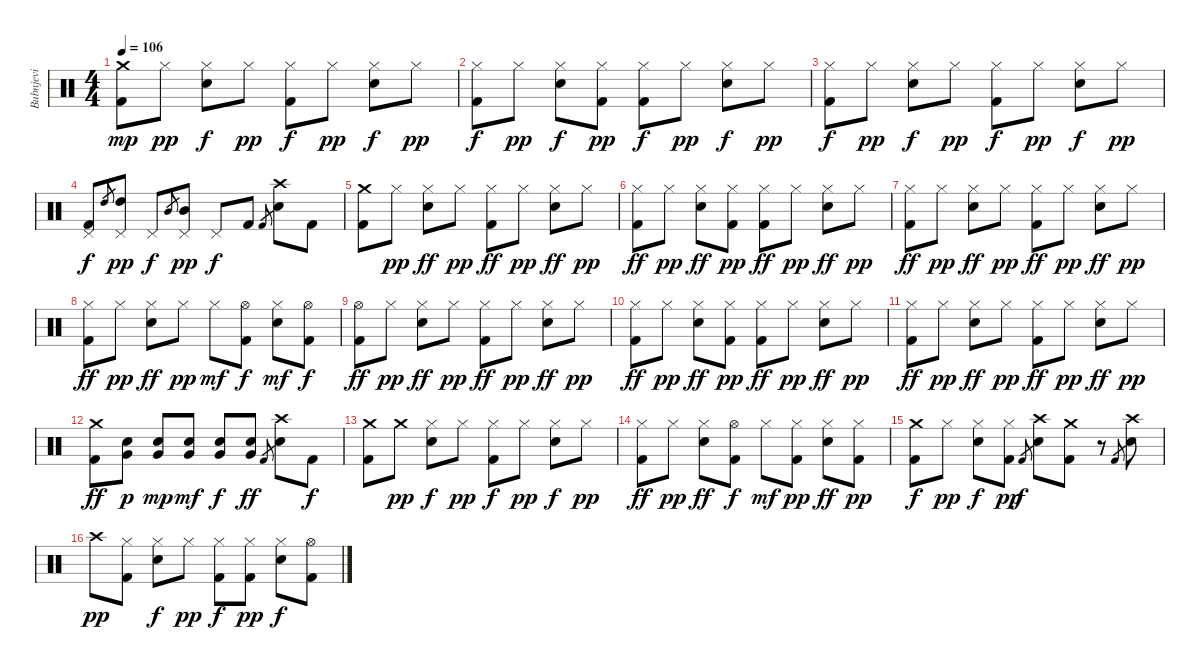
\track ("Bubnjevi" "Bubnjevi") {instrument percussion}
\staff {score}
\articulation defaults
\ts (4 4)
\tempo 106
\clef neutral
\ks c
("Crash medium (hit)" "Kick (hit) 2").8{dy mp} "Hi-Hat (closed)".8{dy pp} ("Hi-Hat (closed)" "Electric Snare (hit)").8{dy f} "Hi-Hat (closed)".8{dy pp} ("Hi-Hat (closed)" "Kick (hit) 2").8{dy f} "Hi-Hat (closed)".8{dy pp} ("Hi-Hat (closed)" "Electric Snare (hit)").8{dy f} "Hi-Hat (closed)".8{dy pp} |
("Hi-Hat (closed)" "Kick (hit) 2").8{dy f} "Hi-Hat (closed)".8{dy pp} ("Hi-Hat (closed)" "Electric Snare (hit)").8{dy f} ("Hi-Hat (closed)" "Kick (hit) 2").8{dy pp} ("Hi-Hat (closed)" "Kick (hit) 2").8{dy f} "Hi-Hat (closed)".8{dy pp} ("Hi-Hat (closed)" "Electric Snare (hit)").8{dy f} "Hi-Hat (closed)".8{dy pp} |
("Hi-Hat (closed)" "Kick (hit) 2").8{dy f} "Hi-Hat (closed)".8{dy pp} ("Hi-Hat (closed)" "Electric Snare (hit)").8{dy f} "Hi-Hat (closed)".8{dy pp} ("Hi-Hat (closed)" "Kick (hit) 2").8{dy f} "Hi-Hat (closed)".8{dy pp} ("Hi-Hat (closed)" "Electric Snare (hit)").8{dy f} "Hi-Hat (closed)".8{dy pp} |
("Pedal Hi-Hat (hit)" "Kick (hit) 2").8{dy f} "High Tom (hit)".8{gr} ("Pedal Hi-Hat (hit)" "High Tom (hit)").8{dy pp} "Pedal Hi-Hat (hit)".8{dy f} "Mid Tom (hit)".8{gr} ("Pedal Hi-Hat (hit)" "Mid Tom (hit)").8{dy pp} "Pedal Hi-Hat (hit)".8{dy f} "Kick (hit) 2".8 "Kick (hit) 2".8{gr} ("Crash high (hit)" "Electric Snare (hit)").8 "Kick (hit) 2".8 |
("Crash medium (hit)" "Kick (hit) 2").8 "Hi-Hat (closed)".8{dy pp} ("Hi-Hat (closed)" "Electric Snare (hit)").8{dy ff} "Hi-Hat (closed)".8{dy pp} ("Hi-Hat (closed)" "Kick (hit) 2").8{dy ff} "Hi-Hat (closed)".8{dy pp} ("Hi-Hat (closed)" "Electric Snare (hit)").8{dy ff} "Hi-Hat (closed)".8{dy pp} |
("Hi-Hat (closed)" "Kick (hit) 2").8{dy ff} "Hi-Hat (closed)".8{dy pp} ("Hi-Hat (closed)" "Electric Snare (hit)").8{dy ff} ("Hi-Hat (closed)" "Kick (hit) 2").8{dy pp} ("Hi-Hat (closed)" "Kick (hit) 2").8{dy ff} "Hi-Hat (closed)".8{dy pp} ("Hi-Hat (closed)" "Electric Snare (hit)").8{dy ff} "Hi-Hat (closed)".8{dy pp} |
("Hi-Hat (closed)" "Kick (hit) 2").8{dy ff} "Hi-Hat (closed)".8{dy pp} ("Hi-Hat (closed)" "Electric Snare (hit)").8{dy ff} "Hi-Hat (closed)".8{dy pp} ("Hi-Hat (closed)" "Kick (hit) 2").8{dy ff} "Hi-Hat (closed)".8{dy pp} ("Hi-Hat (closed)" "Electric Snare (hit)").8{dy ff} "Hi-Hat (closed)".8{dy pp} |
("Hi-Hat (closed)" "Kick (hit) 2").8{dy ff} "Hi-Hat (closed)".8{dy pp} ("Hi-Hat (closed)" "Electric Snare (hit)").8{dy ff} "Hi-Hat (closed)".8{dy pp} "Hi-Hat (closed)".8{dy mf} ("Hi-Hat (open)" "Kick (hit) 2").8{dy f} ("Hi-Hat (closed)" "Electric Snare (hit)").8{dy mf} ("Hi-Hat (open)" "Kick (hit) 2").8{dy f} |
("Hi-Hat (open)" "Kick (hit) 2").8{dy ff} "Hi-Hat (closed)".8{dy pp} ("Hi-Hat (closed)" "Electric Snare (hit)").8{dy ff} "Hi-Hat (closed)".8{dy pp} ("Hi-Hat (closed)" "Kick (hit) 2").8{dy ff} "Hi-Hat (closed)".8{dy pp} ("Hi-Hat (closed)" "Electric Snare (hit)").8{dy ff} "Hi-Hat (closed)".8{dy pp} |
("Hi-Hat (closed)" "Kick (hit) 2").8{dy ff} "Hi-Hat (closed)".8{dy pp} ("Hi-Hat (closed)" "Electric Snare (hit)").8{dy ff} ("Hi-Hat (closed)" "Kick (hit) 2").8{dy pp} ("Hi-Hat (closed)" "Kick (hit) 2").8{dy ff} "Hi-Hat (closed)".8{dy pp} ("Hi-Hat (closed)" "Electric Snare (hit)").8{dy ff} "Hi-Hat (closed)".8{dy pp} |
("Hi-Hat (closed)" "Kick (hit) 2").8{dy ff} "Hi-Hat (closed)".8{dy pp} ("Hi-Hat (closed)" "Electric Snare (hit)").8{dy ff} "Hi-Hat (closed)".8{dy pp} ("Hi-Hat (closed)" "Kick (hit) 2").8{dy ff} "Hi-Hat (closed)".8{dy pp} ("Hi-Hat (closed)" "Electric Snare (hit)").8{dy ff} "Hi-Hat (closed)".8{dy pp} |
("Crash medium (hit)" "Kick (hit) 2").8{dy ff} ("Electric Snare (hit)" "Very Low Tom (hit)").8{dy p} ("Electric Snare (hit)" "Very Low Tom (hit)").8{dy mp} ("Electric Snare (hit)" "Very Low Tom (hit)").8{dy mf} ("Electric Snare (hit)" "Very Low Tom (hit)").8{dy f} ("Electric Snare (hit)" "Very Low Tom (hit)").8{dy ff} "Kick (hit) 2".8{gr} ("Crash high (hit)" "Electric Snare (hit)").8 "Kick (hit) 2".8{dy f} |
("Crash medium (hit)" "Kick (hit) 2").8 "Crash medium (hit)".8{dy pp} ("Hi-Hat (closed)" "Electric Snare (hit)").8{dy f} "Hi-Hat (closed)".8{dy pp} ("Hi-Hat (closed)" "Kick (hit) 2").8{dy f} "Hi-Hat (closed)".8{dy pp} ("Hi-Hat (closed)" "Electric Snare (hit)").8{dy f} "Hi-Hat (closed)".8{dy pp} |
("Hi-Hat (closed)" "Kick (hit) 2").8{dy ff} "Hi-Hat (closed)".8{dy pp} ("Hi-Hat (closed)" "Electric Snare (hit)").8{dy ff} ("Hi-Hat (open)" "Kick (hit) 2").8{dy f} "Hi-Hat (closed)".8{dy mf} ("Hi-Hat (closed)" "Kick (hit) 2").8{dy pp} ("Hi-Hat (closed)" "Electric Snare (hit)").8{dy ff} ("Hi-Hat (closed)" "Kick (hit) 2").8{dy pp} |
("Crash medium (hit)" "Kick (hit) 2").8{dy f} "Hi-Hat (closed)".8{dy pp} ("Hi-Hat (closed)" "Electric Snare (hit)").8{dy f} ("Hi-Hat (closed)" "Kick (hit) 2").8{dy pp} "Kick (hit) 2".8{gr dy f} ("Crash high (hit)" "Electric Snare (hit)").8 ("Crash medium (hit)" "Kick (hit) 2").8 r.8 "Kick (hit) 2".8{gr} ("Crash high (hit)" "Electric Snare (hit)").8 |
"Crash high (hit)".8{dy pp} ("Hi-Hat (closed)" "Kick (hit) 2").8 ("Hi-Hat (closed)" "Electric Snare (hit)").8{dy f} "Hi-Hat (closed)".8{dy pp} ("Hi-Hat (closed)" "Kick (hit) 2").8{dy f} ("Hi-Hat (closed)" "Kick (hit) 2").8{dy pp} ("Hi-Hat (closed)" "Electric Snare (hit)").8{dy f} ("Hi-Hat (open)" "Kick (hit) 2").8
